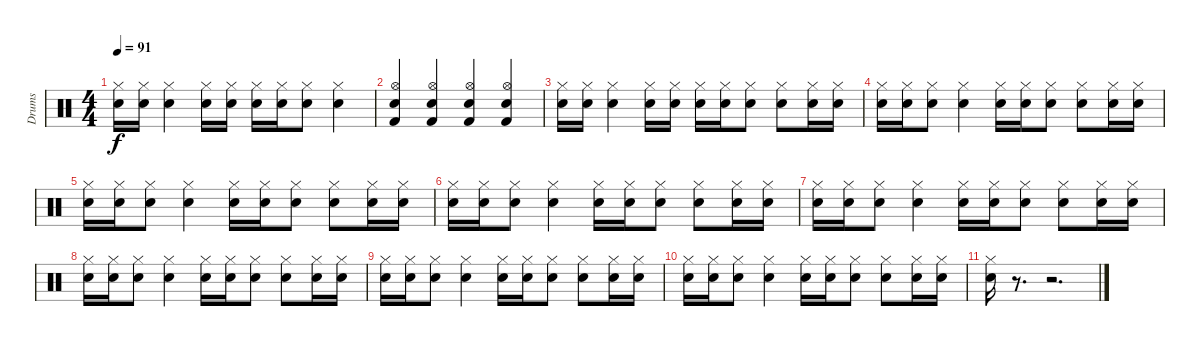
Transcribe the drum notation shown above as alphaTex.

\track ("Drums" "Drums") {instrument percussion}
\staff {score}
\articulation defaults
\ts (4 4)
\tempo 91
\clef neutral
\ks c
("Hi-Hat (closed)" "Snare (hit) 2").16{dy f} ("Hi-Hat (closed)" "Snare (hit) 2").16 ("Hi-Hat (closed)" "Snare (hit) 2").4 ("Hi-Hat (closed)" "Snare (hit) 2").16 ("Hi-Hat (closed)" "Snare (hit) 2").16 ("Hi-Hat (closed)" "Snare (hit) 2").16 ("Hi-Hat (closed)" "Snare (hit) 2").16 ("Hi-Hat (closed)" "Snare (hit) 2").8 ("Hi-Hat (closed)" "Snare (hit) 2").4 |
("Hi-Hat (open)" "Snare (hit) 2" "Kick (hit) 2").4 ("Hi-Hat (open)" "Snare (hit) 2" "Kick (hit) 2").4 ("Hi-Hat (open)" "Snare (hit) 2" "Kick (hit) 2").4 ("Hi-Hat (open)" "Snare (hit) 2" "Kick (hit) 2").4 |
("Hi-Hat (closed)" "Snare (hit) 2").16 ("Hi-Hat (closed)" "Snare (hit) 2").16 ("Hi-Hat (closed)" "Snare (hit) 2").4 ("Hi-Hat (closed)" "Snare (hit) 2").16 ("Hi-Hat (closed)" "Snare (hit) 2").16 ("Hi-Hat (closed)" "Snare (hit) 2").16 ("Hi-Hat (closed)" "Snare (hit) 2").16 ("Hi-Hat (closed)" "Snare (hit) 2").8 ("Hi-Hat (closed)" "Snare (hit) 2").8 ("Hi-Hat (closed)" "Snare (hit) 2").16 ("Hi-Hat (closed)" "Snare (hit) 2").16 |
("Hi-Hat (closed)" "Snare (hit) 2").16 ("Hi-Hat (closed)" "Snare (hit) 2").16 ("Hi-Hat (closed)" "Snare (hit) 2").8 ("Hi-Hat (closed)" "Snare (hit) 2").4 ("Hi-Hat (closed)" "Snare (hit) 2").16 ("Hi-Hat (closed)" "Snare (hit) 2").16 ("Hi-Hat (closed)" "Snare (hit) 2").8 ("Hi-Hat (closed)" "Snare (hit) 2").8 ("Hi-Hat (closed)" "Snare (hit) 2").16 ("Hi-Hat (closed)" "Snare (hit) 2").16 |
("Hi-Hat (closed)" "Snare (hit) 2").16 ("Hi-Hat (closed)" "Snare (hit) 2").16 ("Hi-Hat (closed)" "Snare (hit) 2").8 ("Hi-Hat (closed)" "Snare (hit) 2").4 ("Hi-Hat (closed)" "Snare (hit) 2").16 ("Hi-Hat (closed)" "Snare (hit) 2").16 ("Hi-Hat (closed)" "Snare (hit) 2").8 ("Hi-Hat (closed)" "Snare (hit) 2").8 ("Hi-Hat (closed)" "Snare (hit) 2").16 ("Hi-Hat (closed)" "Snare (hit) 2").16 |
("Hi-Hat (closed)" "Snare (hit) 2").16 ("Hi-Hat (closed)" "Snare (hit) 2").16 ("Hi-Hat (closed)" "Snare (hit) 2").8 ("Hi-Hat (closed)" "Snare (hit) 2").4 ("Hi-Hat (closed)" "Snare (hit) 2").16 ("Hi-Hat (closed)" "Snare (hit) 2").16 ("Hi-Hat (closed)" "Snare (hit) 2").8 ("Hi-Hat (closed)" "Snare (hit) 2").8 ("Hi-Hat (closed)" "Snare (hit) 2").16 ("Hi-Hat (closed)" "Snare (hit) 2").16 |
("Hi-Hat (closed)" "Snare (hit) 2").16 ("Hi-Hat (closed)" "Snare (hit) 2").16 ("Hi-Hat (closed)" "Snare (hit) 2").8 ("Hi-Hat (closed)" "Snare (hit) 2").4 ("Hi-Hat (closed)" "Snare (hit) 2").16 ("Hi-Hat (closed)" "Snare (hit) 2").16 ("Hi-Hat (closed)" "Snare (hit) 2").8 ("Hi-Hat (closed)" "Snare (hit) 2").8 ("Hi-Hat (closed)" "Snare (hit) 2").16 ("Hi-Hat (closed)" "Snare (hit) 2").16 |
("Hi-Hat (closed)" "Snare (hit) 2").16 ("Hi-Hat (closed)" "Snare (hit) 2").16 ("Hi-Hat (closed)" "Snare (hit) 2").8 ("Hi-Hat (closed)" "Snare (hit) 2").4 ("Hi-Hat (closed)" "Snare (hit) 2").16 ("Hi-Hat (closed)" "Snare (hit) 2").16 ("Hi-Hat (closed)" "Snare (hit) 2").8 ("Hi-Hat (closed)" "Snare (hit) 2").8 ("Hi-Hat (closed)" "Snare (hit) 2").16 ("Hi-Hat (closed)" "Snare (hit) 2").16 |
("Hi-Hat (closed)" "Snare (hit) 2").16 ("Hi-Hat (closed)" "Snare (hit) 2").16 ("Hi-Hat (closed)" "Snare (hit) 2").8 ("Hi-Hat (closed)" "Snare (hit) 2").4 ("Hi-Hat (closed)" "Snare (hit) 2").16 ("Hi-Hat (closed)" "Snare (hit) 2").16 ("Hi-Hat (closed)" "Snare (hit) 2").8 ("Hi-Hat (closed)" "Snare (hit) 2").8 ("Hi-Hat (closed)" "Snare (hit) 2").16 ("Hi-Hat (closed)" "Snare (hit) 2").16 |
("Hi-Hat (closed)" "Snare (hit) 2").16 ("Hi-Hat (closed)" "Snare (hit) 2").16 ("Hi-Hat (closed)" "Snare (hit) 2").8 ("Hi-Hat (closed)" "Snare (hit) 2").4 ("Hi-Hat (closed)" "Snare (hit) 2").16 ("Hi-Hat (closed)" "Snare (hit) 2").16 ("Hi-Hat (closed)" "Snare (hit) 2").8 ("Hi-Hat (closed)" "Snare (hit) 2").8 ("Hi-Hat (closed)" "Snare (hit) 2").16 ("Hi-Hat (closed)" "Snare (hit) 2").16 |
("Hi-Hat (closed)" "Snare (hit) 2").16 r.8{d} r.2{d}
